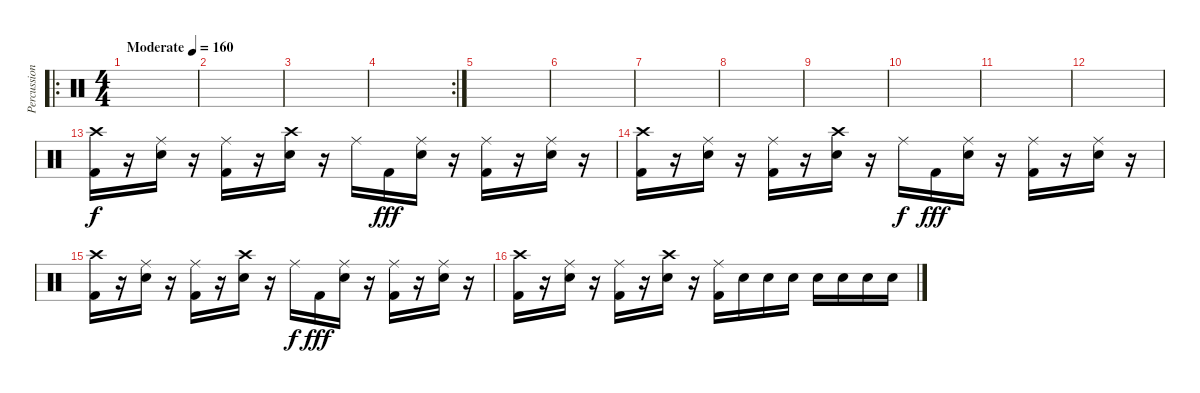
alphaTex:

\track ("Percussion" "Percussion") {instrument percussion}
\staff {score}
\articulation defaults
\ro
\ts (4 4)
\tempo (160 "Moderate")
\clef neutral
\ks c
|
|
|
\rc 2
|
|
|
|
|
|
|
|
|
("Crash high (hit)" "Kick (hit) 2").16 r.16 ("Ride (middle)" "Electric Snare (hit)").16 r.16 ("Ride (middle)" "Kick (hit) 2").16 r.16 ("Crash high (hit)" "Electric Snare (hit)").16 r.16 "Ride (middle)".16{dy f} "Kick (hit) 2".16{dy fff} ("Ride (middle)" "Electric Snare (hit)").16 r.16 ("Ride (middle)" "Kick (hit) 2").16 r.16 ("Ride (middle)" "Electric Snare (hit)").16 r.16 |
("Crash high (hit)" "Kick (hit) 2").16 r.16 ("Ride (middle)" "Electric Snare (hit)").16 r.16 ("Ride (middle)" "Kick (hit) 2").16 r.16 ("Crash high (hit)" "Electric Snare (hit)").16 r.16 "Ride (middle)".16{dy f} "Kick (hit) 2".16{dy fff} ("Ride (middle)" "Electric Snare (hit)").16 r.16 ("Ride (middle)" "Kick (hit) 2").16 r.16 ("Ride (middle)" "Electric Snare (hit)").16 r.16 |
("Crash high (hit)" "Kick (hit) 2").16 r.16 ("Ride (middle)" "Electric Snare (hit)").16 r.16 ("Ride (middle)" "Kick (hit) 2").16 r.16 ("Crash high (hit)" "Electric Snare (hit)").16 r.16 "Ride (middle)".16{dy f} "Kick (hit) 2".16{dy fff} ("Ride (middle)" "Electric Snare (hit)").16 r.16 ("Ride (middle)" "Kick (hit) 2").16 r.16 ("Ride (middle)" "Electric Snare (hit)").16 r.16 |
("Crash high (hit)" "Kick (hit) 2").16 r.16 ("Ride (middle)" "Electric Snare (hit)").16 r.16 ("Ride (middle)" "Kick (hit) 2").16 r.16 ("Crash high (hit)" "Electric Snare (hit)").16 r.16 ("Ride (middle)" "Kick (hit) 2").16 "Electric Snare (hit)".16 "Electric Snare (hit)".16 "Electric Snare (hit)".16 "Electric Snare (hit)".16 "Electric Snare (hit)".16 "Electric Snare (hit)".16 "Electric Snare (hit)".16
